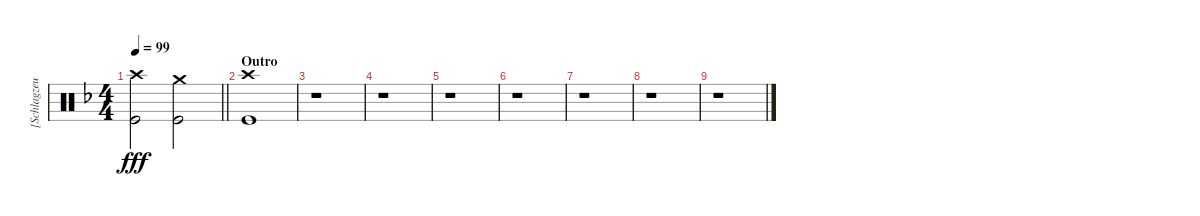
\track ("[Schlagzeug]" "[Schlagzeu") {instrument percussion}
\staff {score}
\articulation defaults
\ts (4 4)
\tempo 99
\clef neutral
\barLineRight lightlight
\ks dminor
("Crash high (hit)" "Kick (hit)").2{dy fff} ("Crash medium (hit)" "Kick (hit)").2 |
\section ("" "Outro")
("Crash high (hit)" "Kick (hit)").1 |
r.1 |
r.1 |
r.1 |
r.1 |
r.1 |
r.1 |
r.1
